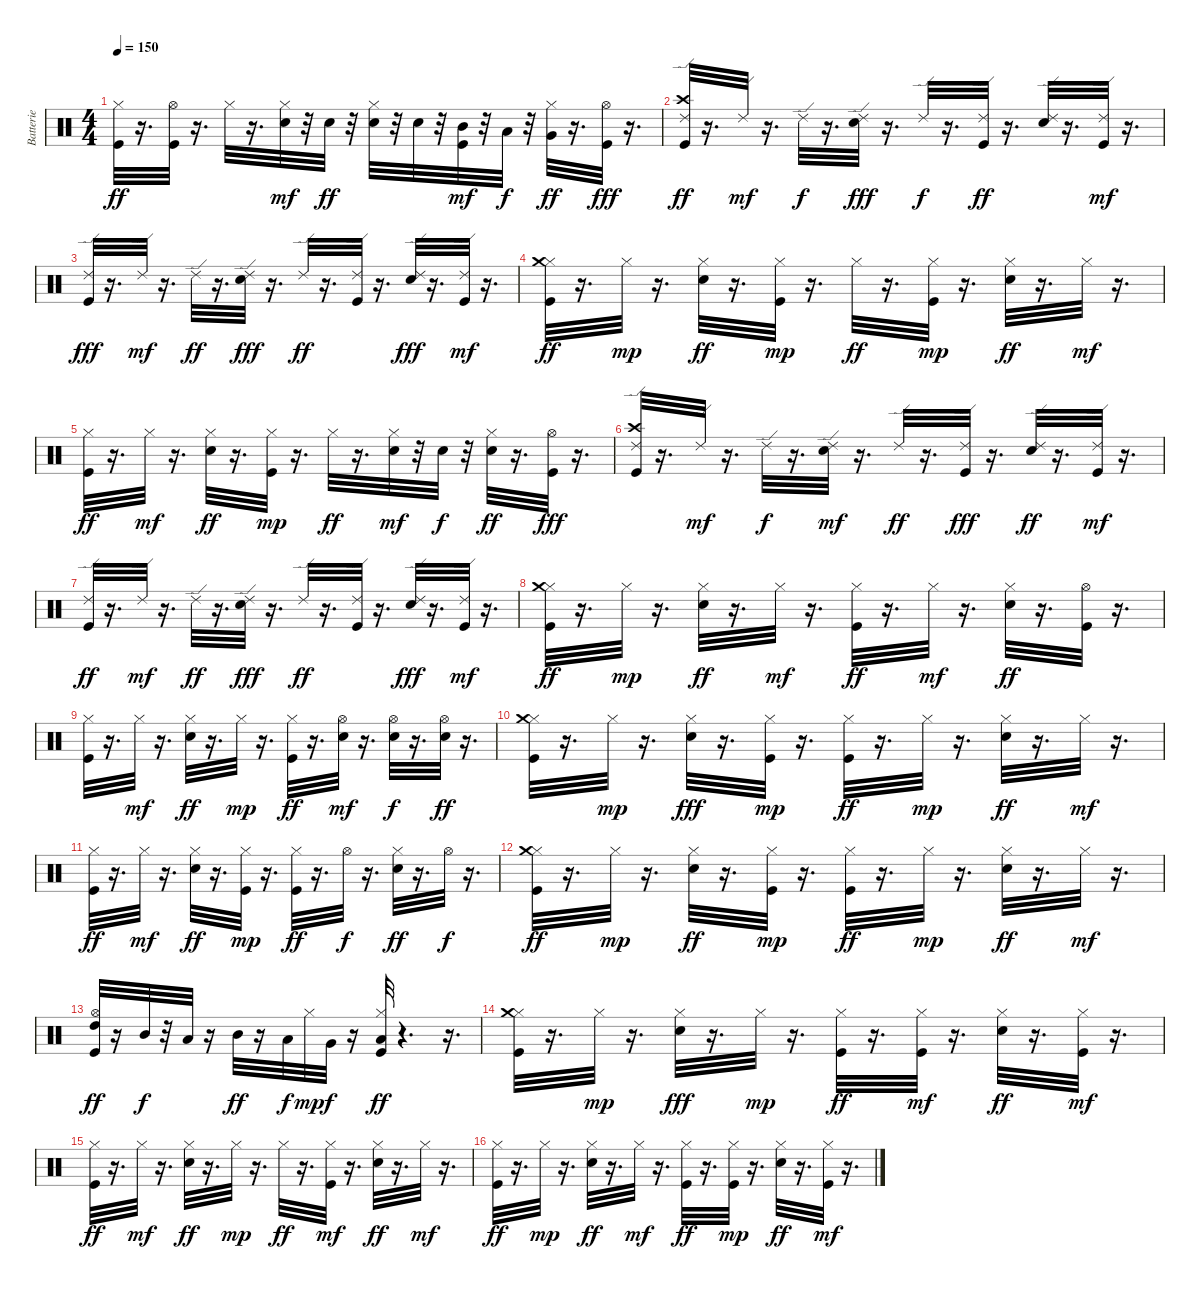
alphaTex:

\track ("Batterie" "Batterie") {instrument percussion}
\staff {score}
\articulation defaults
\ts (4 4)
\tempo 150
\clef neutral
\ks c
("Kick (hit)" "Hi-Hat (closed)").32{dy ff} r.16{d} ("Kick (hit)" "Hi-Hat (open)").32 r.16{d} "Hi-Hat (closed)".32 r.16{d} ("Snare (hit) 2" "Hi-Hat (closed)").32{dy mf} r.32 "Snare (hit) 2".32{dy ff} r.32 ("Snare (hit) 2" "Hi-Hat (closed)").32 r.32 "Snare (hit) 2".32 r.32 ("Kick (hit)" "Mid Tom (hit)").32{dy mf} r.32 "Low Tom (hit)".32{dy f} r.32 ("Hi-Hat (closed)" "Very Low Tom (hit)").32{dy ff} r.16{d} ("Kick (hit)" "Hi-Hat (open)").32{dy fff} r.16{d} |
("Kick (hit)" "Crash high (hit)" "Ride (edge) 2").32{dy ff} r.16{d} "Ride (edge) 2".32{dy mf} r.16{d} "Ride (edge) 2".32{dy f} r.16{d} ("Snare (hit) 2" "Ride (edge) 2").32{dy fff} r.16{d} "Ride (edge) 2".32{dy f} r.16{d} ("Kick (hit)" "Ride (edge) 2").32{dy ff} r.16{d} ("Snare (hit) 2" "Ride (edge) 2").32 r.16{d} ("Kick (hit)" "Ride (edge) 2").32{dy mf} r.16{d} |
("Kick (hit)" "Ride (edge) 2").32{dy fff} r.16{d} "Ride (edge) 2".32{dy mf} r.16{d} "Ride (edge) 2".32{dy ff} r.16{d} ("Snare (hit) 2" "Ride (edge) 2").32{dy fff} r.16{d} "Ride (edge) 2".32{dy ff} r.16{d} ("Kick (hit)" "Ride (edge) 2").32 r.16{d} ("Snare (hit) 2" "Ride (edge) 2").32{dy fff} r.16{d} ("Kick (hit)" "Ride (edge) 2").32{dy mf} r.16{d} |
("Kick (hit)" "Hi-Hat (closed)" "Crash medium (hit)").32{dy ff} r.16{d} "Hi-Hat (closed)".32{dy mp} r.16{d} ("Snare (hit) 2" "Hi-Hat (closed)").32{dy ff} r.16{d} ("Kick (hit)" "Hi-Hat (closed)").32{dy mp} r.16{d} "Hi-Hat (closed)".32{dy ff} r.16{d} ("Kick (hit)" "Hi-Hat (closed)").32{dy mp} r.16{d} ("Snare (hit) 2" "Hi-Hat (closed)").32{dy ff} r.16{d} "Hi-Hat (closed)".32{dy mf} r.16{d} |
("Kick (hit)" "Hi-Hat (closed)").32{dy ff} r.16{d} "Hi-Hat (closed)".32{dy mf} r.16{d} ("Snare (hit) 2" "Hi-Hat (closed)").32{dy ff} r.16{d} ("Kick (hit)" "Hi-Hat (closed)").32{dy mp} r.16{d} "Hi-Hat (closed)".32{dy ff} r.16{d} ("Snare (hit) 2" "Hi-Hat (closed)").32{dy mf} r.32 "Snare (hit) 2".32{dy f} r.32 ("Snare (hit) 2" "Hi-Hat (closed)").32{dy ff} r.16{d} ("Kick (hit)" "Hi-Hat (open)").32{dy fff} r.16{d} |
("Kick (hit)" "Crash high (hit)" "Ride (edge) 2").32 r.16{d} "Ride (edge) 2".32{dy mf} r.16{d} "Ride (edge) 2".32{dy f} r.16{d} ("Snare (hit) 2" "Ride (edge) 2").32{dy mf} r.16{d} "Ride (edge) 2".32{dy ff} r.16{d} ("Kick (hit)" "Ride (edge) 2").32{dy fff} r.16{d} ("Snare (hit) 2" "Ride (edge) 2").32{dy ff} r.16{d} ("Kick (hit)" "Ride (edge) 2").32{dy mf} r.16{d} |
("Kick (hit)" "Ride (edge) 2").32{dy ff} r.16{d} "Ride (edge) 2".32{dy mf} r.16{d} "Ride (edge) 2".32{dy ff} r.16{d} ("Snare (hit) 2" "Ride (edge) 2").32{dy fff} r.16{d} "Ride (edge) 2".32{dy ff} r.16{d} ("Kick (hit)" "Ride (edge) 2").32 r.16{d} ("Snare (hit) 2" "Ride (edge) 2").32{dy fff} r.16{d} ("Kick (hit)" "Ride (edge) 2").32{dy mf} r.16{d} |
("Kick (hit)" "Hi-Hat (closed)" "Crash medium (hit)").32{dy ff} r.16{d} "Hi-Hat (closed)".32{dy mp} r.16{d} ("Snare (hit) 2" "Hi-Hat (closed)").32{dy ff} r.16{d} "Hi-Hat (closed)".32{dy mf} r.16{d} ("Kick (hit)" "Hi-Hat (closed)").32{dy ff} r.16{d} "Hi-Hat (closed)".32{dy mf} r.16{d} ("Snare (hit) 2" "Hi-Hat (closed)").32{dy ff} r.16{d} ("Kick (hit)" "Hi-Hat (open)").32 r.16{d} |
("Kick (hit)" "Hi-Hat (closed)").32 r.16{d} "Hi-Hat (closed)".32{dy mf} r.16{d} ("Snare (hit) 2" "Hi-Hat (closed)").32{dy ff} r.16{d} "Hi-Hat (closed)".32{dy mp} r.16{d} ("Kick (hit)" "Hi-Hat (closed)").32{dy ff} r.16{d} ("Snare (hit) 2" "Hi-Hat (open)").32{dy mf} r.16{d} ("Snare (hit) 2" "Hi-Hat (open)").32{dy f} r.16{d} ("Snare (hit) 2" "Hi-Hat (open)").32{dy ff} r.16{d} |
("Kick (hit)" "Hi-Hat (closed)" "Crash medium (hit)").32 r.16{d} "Hi-Hat (closed)".32{dy mp} r.16{d} ("Snare (hit) 2" "Hi-Hat (closed)").32{dy fff} r.16{d} ("Kick (hit)" "Hi-Hat (closed)").32{dy mp} r.16{d} ("Kick (hit)" "Hi-Hat (closed)").32{dy ff} r.16{d} "Hi-Hat (closed)".32{dy mp} r.16{d} ("Snare (hit) 2" "Hi-Hat (closed)").32{dy ff} r.16{d} "Hi-Hat (closed)".32{dy mf} r.16{d} |
("Kick (hit)" "Hi-Hat (closed)").32{dy ff} r.16{d} "Hi-Hat (closed)".32{dy mf} r.16{d} ("Snare (hit) 2" "Hi-Hat (closed)").32{dy ff} r.16{d} ("Kick (hit)" "Hi-Hat (closed)").32{dy mp} r.16{d} ("Kick (hit)" "Hi-Hat (closed)").32{dy ff} r.16{d} "Hi-Hat (open)".32{dy f} r.16{d} ("Snare (hit) 2" "Hi-Hat (closed)").32{dy ff} r.16{d} "Hi-Hat (open)".32{dy f} r.16{d} |
("Kick (hit)" "Hi-Hat (closed)" "Crash medium (hit)").32{dy ff} r.16{d} "Hi-Hat (closed)".32{dy mp} r.16{d} ("Snare (hit) 2" "Hi-Hat (closed)").32{dy ff} r.16{d} ("Kick (hit)" "Hi-Hat (closed)").32{dy mp} r.16{d} ("Kick (hit)" "Hi-Hat (closed)").32{dy ff} r.16{d} "Hi-Hat (closed)".32{dy mp} r.16{d} ("Snare (hit) 2" "Hi-Hat (closed)").32{dy ff} r.16{d} "Hi-Hat (closed)".32{dy mf} r.16{d} |
("Kick (hit)" "Hi-Hat (open)" "High Tom (hit)").32{dy ff} r.16 "Mid Tom (hit)".32{dy f} r.32 "Low Tom (hit)".32 r.16 "Mid Tom (hit)".32{dy ff} r.16 "Low Tom (hit)".32{dy f} "Hi-Hat (closed)".32{dy mp} "Very Low Tom (hit)".32{dy f} r.16 ("Kick (hit)" "Low Floor Tom (hit)" "Hi-Hat (closed)").32{dy ff} r.4{d} r.16{d} |
("Kick (hit)" "Hi-Hat (closed)" "Crash medium (hit)").32 r.16{d} "Hi-Hat (closed)".32{dy mp} r.16{d} ("Snare (hit) 2" "Hi-Hat (closed)").32{dy fff} r.16{d} "Hi-Hat (closed)".32{dy mp} r.16{d} ("Kick (hit)" "Hi-Hat (closed)").32{dy ff} r.16{d} ("Kick (hit)" "Hi-Hat (closed)").32{dy mf} r.16{d} ("Snare (hit) 2" "Hi-Hat (closed)").32{dy ff} r.16{d} ("Kick (hit)" "Hi-Hat (closed)").32{dy mf} r.16{d} |
("Kick (hit)" "Hi-Hat (closed)").32{dy ff} r.16{d} "Hi-Hat (closed)".32{dy mf} r.16{d} ("Snare (hit) 2" "Hi-Hat (closed)").32{dy ff} r.16{d} "Hi-Hat (closed)".32{dy mp} r.16{d} "Hi-Hat (closed)".32{dy ff} r.16{d} ("Kick (hit)" "Hi-Hat (closed)").32{dy mf} r.16{d} ("Snare (hit) 2" "Hi-Hat (closed)").32{dy ff} r.16{d} "Hi-Hat (closed)".32{dy mf} r.16{d} |
("Kick (hit)" "Hi-Hat (closed)").32{dy ff} r.16{d} "Hi-Hat (closed)".32{dy mp} r.16{d} ("Snare (hit) 2" "Hi-Hat (closed)").32{dy ff} r.16{d} "Hi-Hat (closed)".32{dy mf} r.16{d} ("Kick (hit)" "Hi-Hat (closed)").32{dy ff} r.16{d} ("Kick (hit)" "Hi-Hat (closed)").32{dy mp} r.16{d} ("Snare (hit) 2" "Hi-Hat (closed)").32{dy ff} r.16{d} ("Kick (hit)" "Hi-Hat (closed)").32{dy mf} r.16{d}
